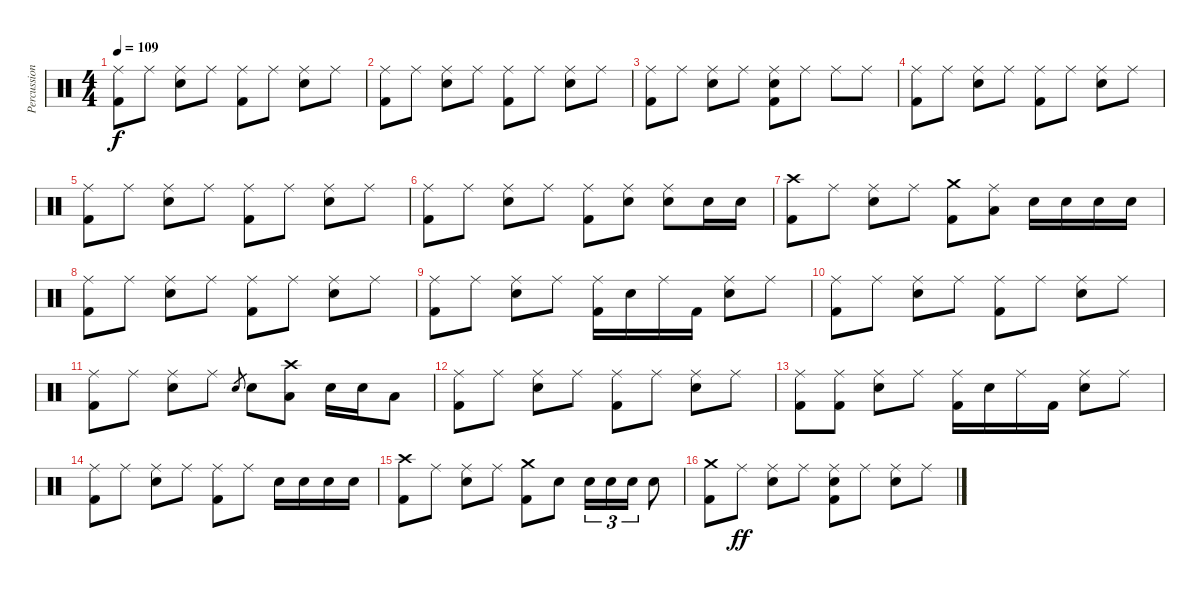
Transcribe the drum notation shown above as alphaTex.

\track ("Percussion" "Percussion") {instrument percussion}
\staff {score}
\articulation defaults
\ts (4 4)
\tempo 109
\clef neutral
\ks c
("Ride (middle)" "Kick (hit) 2").8{dy f} "Ride (middle)".8 ("Ride (middle)" "Electric Snare (hit)").8 "Ride (middle)".8 ("Ride (middle)" "Kick (hit) 2").8 "Ride (middle)".8 ("Ride (middle)" "Electric Snare (hit)").8 "Ride (middle)".8 |
("Ride (middle)" "Kick (hit) 2").8 "Ride (middle)".8 ("Ride (middle)" "Electric Snare (hit)").8 "Ride (middle)".8 ("Ride (middle)" "Kick (hit) 2").8 "Ride (middle)".8 ("Ride (middle)" "Electric Snare (hit)").8 "Ride (middle)".8 |
("Ride (middle)" "Kick (hit) 2").8 "Ride (middle)".8 ("Ride (middle)" "Electric Snare (hit)").8 "Ride (middle)".8 ("Ride (middle)" "Electric Snare (hit)" "Kick (hit) 2").8 "Ride (middle)".8 "Ride (middle)".8 "Ride (middle)".8 |
("Ride (middle)" "Kick (hit) 2").8 "Ride (middle)".8 ("Ride (middle)" "Electric Snare (hit)").8 "Ride (middle)".8 ("Ride (middle)" "Kick (hit) 2").8 "Ride (middle)".8 ("Ride (middle)" "Electric Snare (hit)").8 "Ride (middle)".8 |
("Ride (middle)" "Kick (hit) 2").8 "Ride (middle)".8 ("Ride (middle)" "Electric Snare (hit)").8 "Ride (middle)".8 ("Ride (middle)" "Kick (hit) 2").8 "Ride (middle)".8 ("Ride (middle)" "Electric Snare (hit)").8 "Ride (middle)".8 |
("Ride (middle)" "Kick (hit) 2").8 "Ride (middle)".8 ("Ride (middle)" "Electric Snare (hit)").8 "Ride (middle)".8 ("Ride (middle)" "Kick (hit) 2").8 ("Ride (middle)" "Electric Snare (hit)").8 ("Ride (middle)" "Electric Snare (hit)").8 "Electric Snare (hit)".16 "Electric Snare (hit)".16 |
("Crash high (hit)" "Kick (hit) 2").8 "Ride (middle)".8 ("Ride (middle)" "Electric Snare (hit)").8 "Ride (middle)".8 ("Crash medium (hit)" "Kick (hit) 2").8 ("Ride (middle)" "Low Tom (hit)").8 "Electric Snare (hit)".16 "Electric Snare (hit)".16 "Electric Snare (hit)".16 "Electric Snare (hit)".16 |
("Ride (middle)" "Kick (hit) 2").8 "Ride (middle)".8 ("Ride (middle)" "Electric Snare (hit)").8 "Ride (middle)".8 ("Ride (middle)" "Kick (hit) 2").8 "Ride (middle)".8 ("Ride (middle)" "Electric Snare (hit)").8 "Ride (middle)".8 |
("Ride (middle)" "Kick (hit) 2").8 "Ride (middle)".8 ("Ride (middle)" "Electric Snare (hit)").8 "Ride (middle)".8 ("Ride (middle)" "Kick (hit) 2").16 "Electric Snare (hit)".16 "Ride (middle)".16 "Kick (hit) 2".16 ("Ride (middle)" "Electric Snare (hit)").8 "Ride (middle)".8 |
("Ride (middle)" "Kick (hit) 2").8 "Ride (middle)".8 ("Ride (middle)" "Electric Snare (hit)").8 "Ride (middle)".8 ("Ride (middle)" "Kick (hit) 2").8 "Ride (middle)".8 ("Ride (middle)" "Electric Snare (hit)").8 "Ride (middle)".8 |
("Ride (middle)" "Kick (hit) 2").8 "Ride (middle)".8 ("Ride (middle)" "Electric Snare (hit)").8 "Ride (middle)".8 "Electric Snare (hit)".8{gr} "Electric Snare (hit)".8 ("Crash high (hit)" "Low Tom (hit)").8 "Electric Snare (hit)".16 "Electric Snare (hit)".16 "Low Tom (hit)".8 |
("Ride (middle)" "Kick (hit) 2").8 "Ride (middle)".8 ("Ride (middle)" "Electric Snare (hit)").8 "Ride (middle)".8 ("Ride (middle)" "Kick (hit) 2").8 "Ride (middle)".8 ("Ride (middle)" "Electric Snare (hit)").8 "Ride (middle)".8 |
("Ride (middle)" "Kick (hit) 2").8 ("Ride (middle)" "Kick (hit) 2").8 ("Ride (middle)" "Electric Snare (hit)").8 "Ride (middle)".8 ("Ride (middle)" "Kick (hit) 2").16 "Electric Snare (hit)".16 "Ride (middle)".16 "Kick (hit) 2".16 ("Ride (middle)" "Electric Snare (hit)").8 "Ride (middle)".8 |
("Ride (middle)" "Kick (hit) 2").8 "Ride (middle)".8 ("Ride (middle)" "Electric Snare (hit)").8 "Ride (middle)".8 ("Ride (middle)" "Kick (hit) 2").8 "Ride (middle)".8 "Electric Snare (hit)".16 "Electric Snare (hit)".16 "Electric Snare (hit)".16 "Electric Snare (hit)".16 |
("Crash high (hit)" "Kick (hit) 2").8 "Ride (middle)".8 ("Ride (middle)" "Electric Snare (hit)").8 "Ride (middle)".8 ("Crash medium (hit)" "Kick (hit) 2").8 "Electric Snare (hit)".8 "Electric Snare (hit)".16{tu (3 2)} "Electric Snare (hit)".16{tu (3 2)} "Electric Snare (hit)".16{tu (3 2)} "Electric Snare (hit)".8 |
("Crash medium (hit)" "Kick (hit) 2").8 "Ride (middle)".8{dy ff} ("Ride (middle)" "Electric Snare (hit)").8 "Ride (middle)".8 ("Ride (middle)" "Electric Snare (hit)" "Kick (hit) 2").8 "Ride (middle)".8 ("Ride (middle)" "Electric Snare (hit)").8 "Ride (middle)".8
